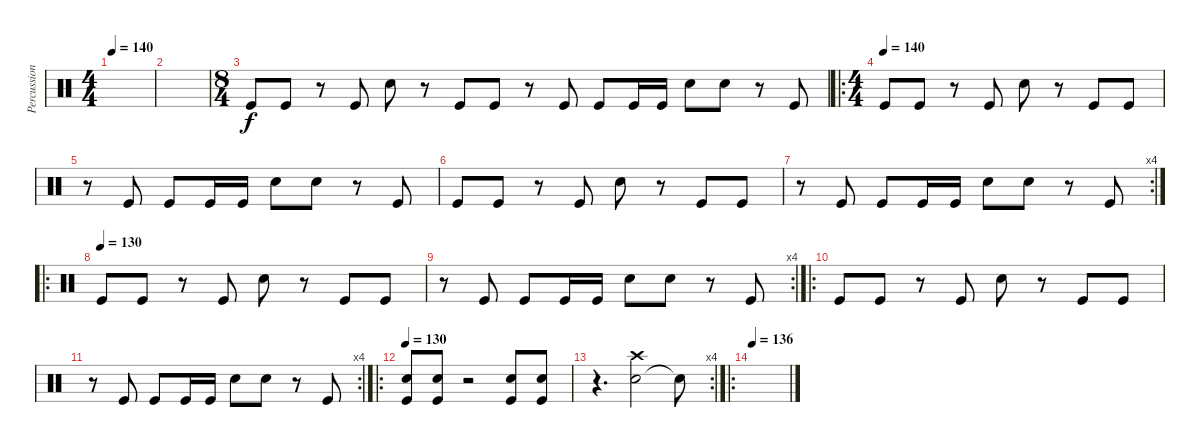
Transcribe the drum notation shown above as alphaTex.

\track ("Percussion" "Percussion") {instrument percussion}
\staff {score}
\articulation defaults
\ts (4 4)
\tempo 140
\clef neutral
\ks c
|
|
\ts (8 4)
"Kick (hit)".8 "Kick (hit)".8 r.8 "Kick (hit)".8 "Snare (hit) 2".8 r.8 "Kick (hit)".8 "Kick (hit)".8 r.8 "Kick (hit)".8 "Kick (hit)".8 "Kick (hit)".16 "Kick (hit)".16 "Snare (hit) 2".8 "Snare (hit) 2".8 r.8 "Kick (hit)".8 |
\ro
\ts (4 4)
\tempo (140)
"Kick (hit)".8 "Kick (hit)".8 r.8 "Kick (hit)".8 "Snare (hit) 2".8 r.8 "Kick (hit)".8 "Kick (hit)".8 |
r.8 "Kick (hit)".8 "Kick (hit)".8 "Kick (hit)".16 "Kick (hit)".16 "Snare (hit) 2".8 "Snare (hit) 2".8 r.8 "Kick (hit)".8 |
"Kick (hit)".8 "Kick (hit)".8 r.8 "Kick (hit)".8 "Snare (hit) 2".8 r.8 "Kick (hit)".8 "Kick (hit)".8 |
\rc 4
r.8 "Kick (hit)".8 "Kick (hit)".8 "Kick (hit)".16 "Kick (hit)".16 "Snare (hit) 2".8 "Snare (hit) 2".8 r.8 "Kick (hit)".8 |
\ro
\tempo (130)
"Kick (hit)".8 "Kick (hit)".8 r.8 "Kick (hit)".8 "Snare (hit) 2".8 r.8 "Kick (hit)".8 "Kick (hit)".8 |
\rc 4
r.8 "Kick (hit)".8 "Kick (hit)".8 "Kick (hit)".16 "Kick (hit)".16 "Snare (hit) 2".8 "Snare (hit) 2".8 r.8 "Kick (hit)".8 |
\ro "Kick (hit)".8 "Kick (hit)".8
r.8 "Kick (hit)".8 "Snare (hit) 2".8 r.8 "Kick (hit)".8 "Kick (hit)".8 |
\rc 4
r.8 "Kick (hit)".8 "Kick (hit)".8 "Kick (hit)".16 "Kick (hit)".16 "Snare (hit) 2".8 "Snare (hit) 2".8 r.8 "Kick (hit)".8 |
\ro
\tempo 130
("Snare (hit) 2" "Kick (hit)").8 ("Snare (hit) 2" "Kick (hit)").8 r.2 ("Snare (hit) 2" "Kick (hit)").8 ("Snare (hit) 2" "Kick (hit)").8 |
\rc 4
r.4{d} ("Snare (hit) 2" "Crash high (hit)").2 "Snare (hit)"{t}.8 |
\ro
\tempo 136
